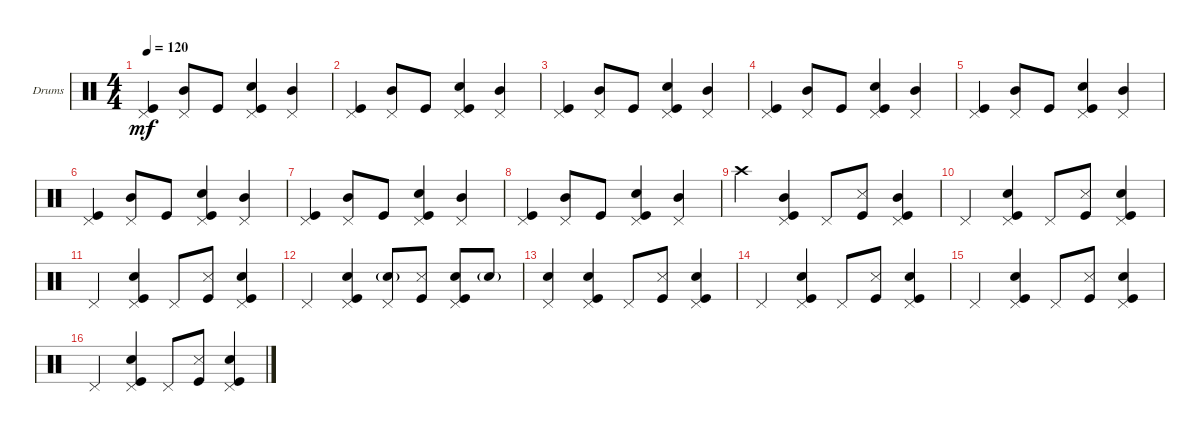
\defaultSystemsLayout 4
\bracketExtendMode groupsimilarinstruments
\firstSystemTrackNameOrientation horizontal
\otherSystemsTrackNameOrientation horizontal
\track ("Drumkit" "Drums") {instrument percussion}
\staff {score}
\articulation defaults
\ts (4 4)
\tempo 120
\clef neutral
\ks c
("Kick (hit)" "Pedal Hi-Hat (hit)").4{dy mf} ("Pedal Hi-Hat (hit)" "Mid Tom (hit)").8 "Kick (hit)".8 ("Snare (hit) 2" "Kick (hit)" "Pedal Hi-Hat (hit)").4 ("Pedal Hi-Hat (hit)" "Mid Tom (hit)").4 |
("Kick (hit)" "Pedal Hi-Hat (hit)").4 ("Pedal Hi-Hat (hit)" "Mid Tom (hit)").8 "Kick (hit)".8 ("Snare (hit) 2" "Kick (hit)" "Pedal Hi-Hat (hit)").4 ("Pedal Hi-Hat (hit)" "Mid Tom (hit)").4 |
("Kick (hit)" "Pedal Hi-Hat (hit)").4 ("Pedal Hi-Hat (hit)" "Mid Tom (hit)").8 "Kick (hit)".8 ("Snare (hit) 2" "Kick (hit)" "Pedal Hi-Hat (hit)").4 ("Pedal Hi-Hat (hit)" "Mid Tom (hit)").4 |
("Kick (hit)" "Pedal Hi-Hat (hit)").4 ("Pedal Hi-Hat (hit)" "Mid Tom (hit)").8 "Kick (hit)".8 ("Snare (hit) 2" "Kick (hit)" "Pedal Hi-Hat (hit)").4 ("Pedal Hi-Hat (hit)" "Mid Tom (hit)").4 |
("Kick (hit)" "Pedal Hi-Hat (hit)").4 ("Pedal Hi-Hat (hit)" "Mid Tom (hit)").8 "Kick (hit)".8 ("Snare (hit) 2" "Kick (hit)" "Pedal Hi-Hat (hit)").4 ("Pedal Hi-Hat (hit)" "Mid Tom (hit)").4 |
("Kick (hit)" "Pedal Hi-Hat (hit)").4 ("Pedal Hi-Hat (hit)" "Mid Tom (hit)").8 "Kick (hit)".8 ("Snare (hit) 2" "Kick (hit)" "Pedal Hi-Hat (hit)").4 ("Pedal Hi-Hat (hit)" "Mid Tom (hit)").4 |
("Kick (hit)" "Pedal Hi-Hat (hit)").4 ("Pedal Hi-Hat (hit)" "Mid Tom (hit)").8 "Kick (hit)".8 ("Snare (hit) 2" "Kick (hit)" "Pedal Hi-Hat (hit)").4 ("Pedal Hi-Hat (hit)" "Mid Tom (hit)").4 |
("Kick (hit)" "Pedal Hi-Hat (hit)").4 ("Pedal Hi-Hat (hit)" "Mid Tom (hit)").8 "Kick (hit)".8 ("Snare (hit) 2" "Kick (hit)" "Pedal Hi-Hat (hit)").4 ("Pedal Hi-Hat (hit)" "Mid Tom (hit)").4 |
"Crash high (hit)".4 ("Kick (hit)" "Pedal Hi-Hat (hit)" "Mid Tom (hit)").4 "Pedal Hi-Hat (hit)".8 ("Kick (hit)" "Snare (side stick) 3").8 ("Kick (hit)" "Pedal Hi-Hat (hit)" "Mid Tom (hit)").4 |
"Pedal Hi-Hat (hit)".4 ("Kick (hit)" "Snare (hit) 2" "Pedal Hi-Hat (hit)").4 "Pedal Hi-Hat (hit)".8 ("Kick (hit)" "Snare (side stick) 3").8 ("Kick (hit)" "Snare (hit) 2" "Pedal Hi-Hat (hit)").4 |
"Pedal Hi-Hat (hit)".4 ("Kick (hit)" "Snare (hit) 2" "Pedal Hi-Hat (hit)").4 "Pedal Hi-Hat (hit)".8 ("Kick (hit)" "Snare (side stick) 3").8 ("Kick (hit)" "Snare (hit) 2" "Pedal Hi-Hat (hit)").4 |
"Pedal Hi-Hat (hit)".4 ("Kick (hit)" "Snare (hit) 2" "Pedal Hi-Hat (hit)").4 ("Pedal Hi-Hat (hit)" "Snare (hit) 2"{g}).8 ("Kick (hit)" "Snare (side stick) 3").8 ("Kick (hit)" "Snare (hit) 2" "Pedal Hi-Hat (hit)").8 "Snare (hit) 2"{g}.8 |
("Pedal Hi-Hat (hit)" "Snare (hit) 2").4 ("Kick (hit)" "Snare (hit) 2" "Pedal Hi-Hat (hit)").4 "Pedal Hi-Hat (hit)".8 ("Kick (hit)" "Snare (side stick) 3").8 ("Kick (hit)" "Snare (hit) 2" "Pedal Hi-Hat (hit)").4 |
"Pedal Hi-Hat (hit)".4 ("Kick (hit)" "Snare (hit) 2" "Pedal Hi-Hat (hit)").4 "Pedal Hi-Hat (hit)".8 ("Kick (hit)" "Snare (side stick) 3").8 ("Kick (hit)" "Snare (hit) 2" "Pedal Hi-Hat (hit)").4 |
"Pedal Hi-Hat (hit)".4 ("Kick (hit)" "Snare (hit) 2" "Pedal Hi-Hat (hit)").4 "Pedal Hi-Hat (hit)".8 ("Kick (hit)" "Snare (side stick) 3").8 ("Kick (hit)" "Snare (hit) 2" "Pedal Hi-Hat (hit)").4 |
"Pedal Hi-Hat (hit)".4 ("Kick (hit)" "Snare (hit) 2" "Pedal Hi-Hat (hit)").4 "Pedal Hi-Hat (hit)".8 ("Kick (hit)" "Snare (side stick) 3").8 ("Kick (hit)" "Snare (hit) 2" "Pedal Hi-Hat (hit)").4
